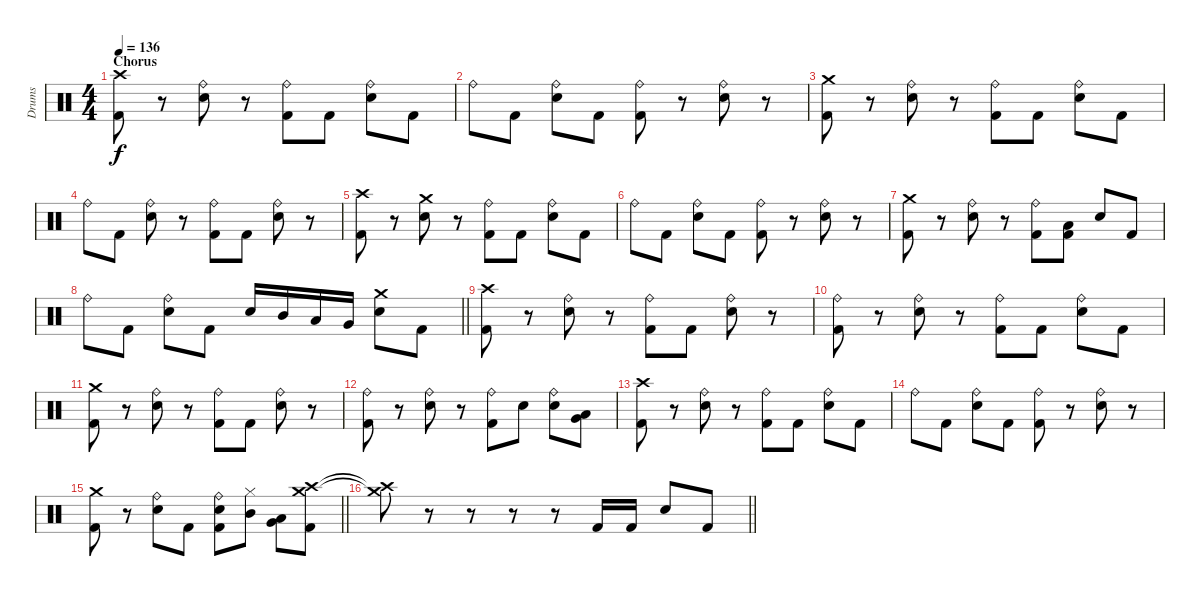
\track ("Drums" "Drums") {instrument percussion}
\staff {score}
\articulation defaults
\ts (4 4)
\section ("" "Chorus")
\tempo 136
\clef neutral
\ks c
("Crash high (hit)" "Kick (hit) 2").8{dy f} r.8 ("Ride (bell)" "Electric Snare (hit)").8 r.8 ("Ride (bell)" "Kick (hit) 2").8 "Kick (hit) 2".8 ("Ride (bell)" "Electric Snare (hit)").8 "Kick (hit) 2".8 |
"Ride (bell)".8 "Kick (hit) 2".8 ("Ride (bell)" "Electric Snare (hit)").8 "Kick (hit) 2".8 ("Ride (bell)" "Kick (hit) 2").8 r.8 ("Ride (bell)" "Electric Snare (hit)").8 r.8 |
("Crash medium (hit)" "Kick (hit) 2").8 r.8 ("Ride (bell)" "Electric Snare (hit)").8 r.8 ("Ride (bell)" "Kick (hit) 2").8 "Kick (hit) 2".8 ("Ride (bell)" "Electric Snare (hit)").8 "Kick (hit) 2".8 |
"Ride (bell)".8 "Kick (hit) 2".8 ("Ride (bell)" "Electric Snare (hit)").8 r.8 ("Ride (bell)" "Kick (hit) 2").8 "Kick (hit) 2".8 ("Ride (bell)" "Electric Snare (hit)").8 r.8 |
("Crash high (hit)" "Kick (hit) 2").8 r.8 ("Crash medium (hit)" "Electric Snare (hit)").8 r.8 ("Ride (bell)" "Kick (hit) 2").8 "Kick (hit) 2".8 ("Ride (bell)" "Electric Snare (hit)").8 "Kick (hit) 2".8 |
"Ride (bell)".8 "Kick (hit) 2".8 ("Ride (bell)" "Electric Snare (hit)").8 "Kick (hit) 2".8 ("Ride (bell)" "Kick (hit) 2").8 r.8 ("Ride (bell)" "Electric Snare (hit)").8 r.8 |
("Crash medium (hit)" "Kick (hit) 2").8 r.8 ("Ride (bell)" "Electric Snare (hit)").8 r.8 ("Ride (bell)" "Kick (hit) 2").8 ("Low Tom (hit)" "Kick (hit) 2").8 "Electric Snare (hit)".8 "Kick (hit) 2".8 |
\barLineRight lightlight "Ride (bell)".8 "Kick (hit) 2".8
("Ride (bell)" "Electric Snare (hit)").8 "Kick (hit) 2".8 "Electric Snare (hit)".16 "Mid Tom (hit)".16 "Low Tom (hit)".16 "Very Low Tom (hit)".16 ("Crash medium (hit)" "Electric Snare (hit)").8 "Kick (hit) 2".8 |
("Crash high (hit)" "Kick (hit) 2").8 r.8 ("Ride (bell)" "Electric Snare (hit)").8 r.8 ("Ride (bell)" "Kick (hit) 2").8 "Kick (hit) 2".8 ("Ride (bell)" "Electric Snare (hit)").8 r.8 |
("Ride (bell)" "Kick (hit) 2").8 r.8 ("Ride (bell)" "Electric Snare (hit)").8 r.8 ("Ride (bell)" "Kick (hit) 2").8 "Kick (hit) 2".8 ("Ride (bell)" "Electric Snare (hit)").8 "Kick (hit) 2".8 |
("Crash medium (hit)" "Kick (hit) 2").8 r.8 ("Ride (bell)" "Electric Snare (hit)").8 r.8 ("Ride (bell)" "Kick (hit) 2").8 "Kick (hit) 2".8 ("Ride (bell)" "Electric Snare (hit)").8 r.8 |
("Ride (bell)" "Kick (hit) 2").8 r.8 ("Ride (bell)" "Electric Snare (hit)").8 r.8 ("Ride (bell)" "Kick (hit) 2").8 "Electric Snare (hit)".8 ("Ride (bell)" "Electric Snare (hit)").8 ("Very Low Tom (hit)" "Low Floor Tom (hit)").8 |
("Crash high (hit)" "Kick (hit) 2").8 r.8 ("Ride (bell)" "Electric Snare (hit)").8 r.8 ("Ride (bell)" "Kick (hit) 2").8 "Kick (hit) 2".8 ("Ride (bell)" "Electric Snare (hit)").8 "Kick (hit) 2".8 |
"Ride (bell)".8 "Kick (hit) 2".8 ("Ride (bell)" "Electric Snare (hit)").8 "Kick (hit) 2".8 ("Ride (bell)" "Kick (hit) 2").8 r.8 ("Ride (bell)" "Electric Snare (hit)").8 r.8 |
\barLineRight lightlight
("Crash medium (hit)" "Kick (hit) 2").8 r.8 ("Ride (bell)" "Electric Snare (hit)").8 "Kick (hit) 2".8 ("Ride (bell)" "Electric Snare (hit)" "Kick (hit) 2").8 ("Mid Tom (hit)" "Hi-Hat (closed)").8 ("Low Tom (hit)" "Very Low Tom (hit)").8 ("Crash high (hit)" "Crash medium (hit)" "Kick (hit) 2").8 |
\barLineRight lightlight
("Crash high (hit)"{t} "Crash medium (hit)"{t}).8 r.8 r.8 r.8 r.8 "Kick (hit) 2".16 "Kick (hit) 2".16 "Electric Snare (hit)".8 "Kick (hit) 2".8
